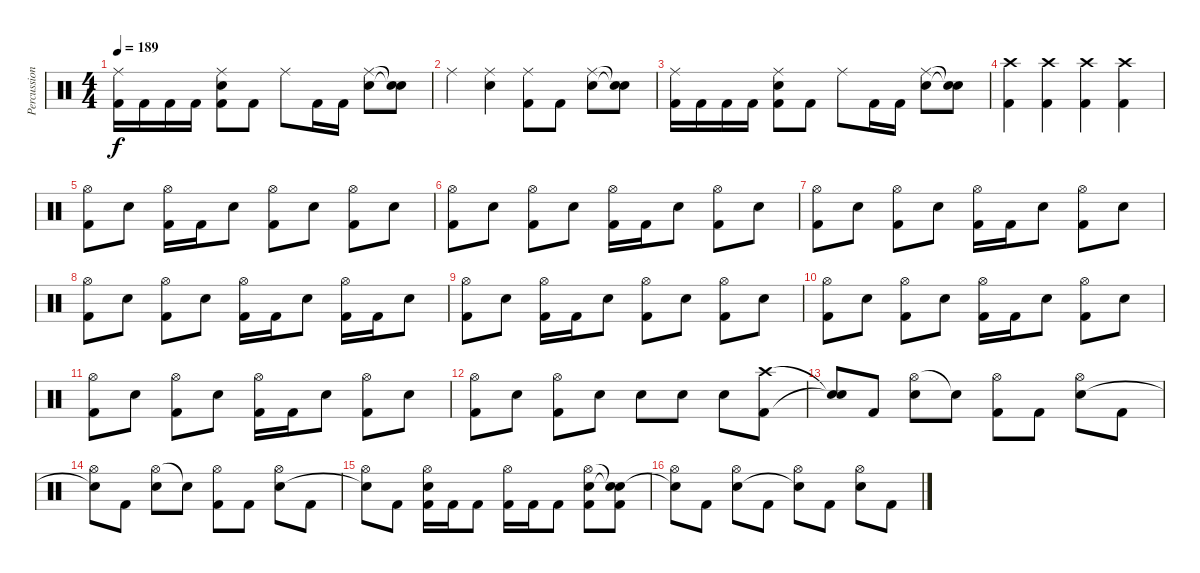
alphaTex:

\track ("Percussion" "Percussion") {instrument percussion}
\staff {score}
\articulation defaults
\ts (4 4)
\tempo 189
\clef neutral
\ks c
("Ride (middle)" "Kick (hit) 2").16{dy f} "Kick (hit) 2".16 "Kick (hit) 2".16 "Kick (hit) 2".16 ("Ride (middle)" "Electric Snare (hit)" "Kick (hit) 2").8 "Kick (hit) 2".8 "Ride (middle)".8 "Kick (hit) 2".16 "Kick (hit) 2".16 ("Ride (middle)" "Electric Snare (hit)").8 ("Snare (hit)"{t} "Snare (hit)"{t}).8 |
"Ride (middle)".4 ("Ride (middle)" "Electric Snare (hit)").4 ("Ride (middle)" "Kick (hit) 2").8 "Kick (hit) 2".8 ("Ride (middle)" "Electric Snare (hit)").8 ("Snare (hit)"{t} "Snare (hit)"{t}).8 |
("Ride (middle)" "Kick (hit) 2").16 "Kick (hit) 2".16 "Kick (hit) 2".16 "Kick (hit) 2".16 ("Ride (middle)" "Electric Snare (hit)" "Kick (hit) 2").8 "Kick (hit) 2".8 "Ride (middle)".8 "Kick (hit) 2".16 "Kick (hit) 2".16 ("Ride (middle)" "Electric Snare (hit)").8 ("Snare (hit)"{t} "Snare (hit)"{t}).8 |
("Crash high (hit)" "Kick (hit) 2").4 ("Crash high (hit)" "Kick (hit) 2").4 ("Crash high (hit)" "Kick (hit) 2").4 ("Crash high (hit)" "Kick (hit) 2").4 |
("Hi-Hat (open)" "Kick (hit) 2").8 "Electric Snare (hit)".8 ("Hi-Hat (open)" "Kick (hit) 2").16 "Kick (hit) 2".16 "Electric Snare (hit)".8 ("Hi-Hat (open)" "Kick (hit) 2").8 "Electric Snare (hit)".8 ("Hi-Hat (open)" "Kick (hit) 2").8 "Electric Snare (hit)".8 |
("Hi-Hat (open)" "Kick (hit) 2").8 "Electric Snare (hit)".8 ("Hi-Hat (open)" "Kick (hit) 2").8 "Electric Snare (hit)".8 ("Hi-Hat (open)" "Kick (hit) 2").16 "Kick (hit) 2".16 "Electric Snare (hit)".8 ("Hi-Hat (open)" "Kick (hit) 2").8 "Electric Snare (hit)".8 |
("Hi-Hat (open)" "Kick (hit) 2").8 "Electric Snare (hit)".8 ("Hi-Hat (open)" "Kick (hit) 2").8 "Electric Snare (hit)".8 ("Hi-Hat (open)" "Kick (hit) 2").16 "Kick (hit) 2".16 "Electric Snare (hit)".8 ("Hi-Hat (open)" "Kick (hit) 2").8 "Electric Snare (hit)".8 |
("Hi-Hat (open)" "Kick (hit) 2").8 "Electric Snare (hit)".8 ("Hi-Hat (open)" "Kick (hit) 2").8 "Electric Snare (hit)".8 ("Hi-Hat (open)" "Kick (hit) 2").16 "Kick (hit) 2".16 "Electric Snare (hit)".8 ("Hi-Hat (open)" "Kick (hit) 2").16 "Kick (hit) 2".16 "Electric Snare (hit)".8 |
("Hi-Hat (open)" "Kick (hit) 2").8 "Electric Snare (hit)".8 ("Hi-Hat (open)" "Kick (hit) 2").16 "Kick (hit) 2".16 "Electric Snare (hit)".8 ("Hi-Hat (open)" "Kick (hit) 2").8 "Electric Snare (hit)".8 ("Hi-Hat (open)" "Kick (hit) 2").8 "Electric Snare (hit)".8 |
("Hi-Hat (open)" "Kick (hit) 2").8 "Electric Snare (hit)".8 ("Hi-Hat (open)" "Kick (hit) 2").8 "Electric Snare (hit)".8 ("Hi-Hat (open)" "Kick (hit) 2").16 "Kick (hit) 2".16 "Electric Snare (hit)".8 ("Hi-Hat (open)" "Kick (hit) 2").8 "Electric Snare (hit)".8 |
("Hi-Hat (open)" "Kick (hit) 2").8 "Electric Snare (hit)".8 ("Hi-Hat (open)" "Kick (hit) 2").8 "Electric Snare (hit)".8 ("Hi-Hat (open)" "Kick (hit) 2").16 "Kick (hit) 2".16 "Electric Snare (hit)".8 ("Hi-Hat (open)" "Kick (hit) 2").8 "Electric Snare (hit)".8 |
("Hi-Hat (open)" "Kick (hit) 2").8 "Electric Snare (hit)".8 ("Hi-Hat (open)" "Kick (hit) 2").8 "Electric Snare (hit)".8 "Electric Snare (hit)".8 "Electric Snare (hit)".8 "Electric Snare (hit)".8 ("Crash high (hit)" "Kick (hit) 2").8 |
("Snare (hit)"{t} "Snare (hit)"{t}).8 "Kick (hit) 2".8 ("Hi-Hat (open)" "Electric Snare (hit)").8 "Snare (hit)"{t}.8 ("Hi-Hat (open)" "Kick (hit) 2").8 "Kick (hit) 2".8 ("Hi-Hat (open)" "Electric Snare (hit)").8 "Kick (hit) 2".8 |
("Hi-Hat (open)" "Snare (hit)"{t}).8 "Kick (hit) 2".8 ("Hi-Hat (open)" "Electric Snare (hit)").8 "Snare (hit)"{t}.8 ("Hi-Hat (open)" "Kick (hit) 2").8 "Kick (hit) 2".8 ("Hi-Hat (open)" "Electric Snare (hit)").8 "Kick (hit) 2".8 |
("Hi-Hat (open)" "Snare (hit)"{t}).8 "Kick (hit) 2".8 ("Hi-Hat (open)" "Electric Snare (hit)" "Kick (hit) 2").16 "Kick (hit) 2".16 "Kick (hit) 2".8 ("Hi-Hat (open)" "Kick (hit) 2").16 "Kick (hit) 2".16 "Kick (hit) 2".8 ("Hi-Hat (open)" "Electric Snare (hit)" "Kick (hit) 2").8 ("Snare (hit)"{t} "Snare (hit)"{t} "Kick (hit) 2").8 |
("Hi-Hat (open)" "Snare (hit)"{t}).8 "Kick (hit) 2".8 ("Hi-Hat (open)" "Electric Snare (hit)").8 "Kick (hit) 2".8 ("Hi-Hat (open)" "Snare (hit)"{t}).8 "Kick (hit) 2".8 ("Hi-Hat (open)" "Electric Snare (hit)").8 "Kick (hit) 2".8
